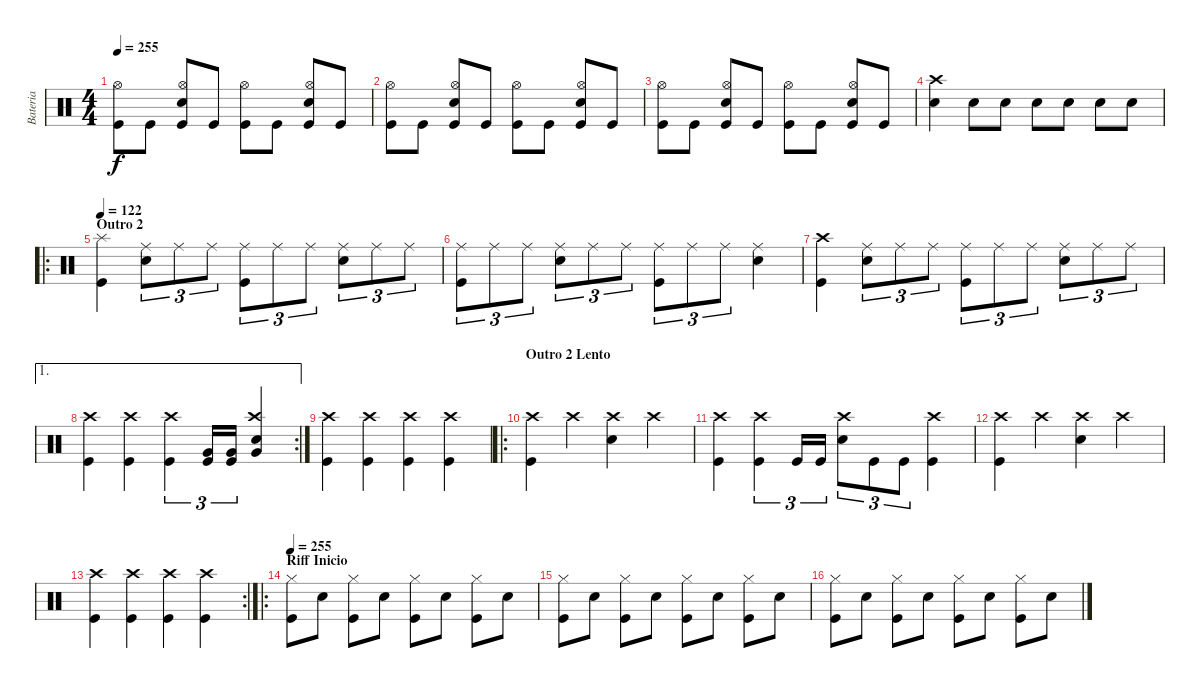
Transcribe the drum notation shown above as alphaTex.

\track ("Bateria" "Bateria") {instrument percussion}
\staff {score}
\articulation defaults
\ts (4 4)
\tempo 255
\clef neutral
\ks c
("Kick (hit)" "Hi-Hat (open)").8{dy f} "Kick (hit)".8 ("Kick (hit)" "Electric Snare (hit)" "Hi-Hat (open)").8 "Kick (hit)".8 ("Kick (hit)" "Hi-Hat (open)").8 "Kick (hit)".8 ("Kick (hit)" "Electric Snare (hit)" "Hi-Hat (open)").8 "Kick (hit)".8 |
("Kick (hit)" "Hi-Hat (open)").8 "Kick (hit)".8 ("Kick (hit)" "Electric Snare (hit)" "Hi-Hat (open)").8 "Kick (hit)".8 ("Kick (hit)" "Hi-Hat (open)").8 "Kick (hit)".8 ("Kick (hit)" "Electric Snare (hit)" "Hi-Hat (open)").8 "Kick (hit)".8 |
("Kick (hit)" "Hi-Hat (open)").8 "Kick (hit)".8 ("Kick (hit)" "Electric Snare (hit)" "Hi-Hat (open)").8 "Kick (hit)".8 ("Kick (hit)" "Hi-Hat (open)").8 "Kick (hit)".8 ("Kick (hit)" "Electric Snare (hit)" "Hi-Hat (open)").8 "Kick (hit)".8 |
("Electric Snare (hit)" "Crash high (hit)").4 "Electric Snare (hit)".8 "Electric Snare (hit)".8 "Electric Snare (hit)".8 "Electric Snare (hit)".8 "Electric Snare (hit)".8 "Electric Snare (hit)".8 |
\ro
\section ("" "Outro 2")
\tempo 122
("Kick (hit)" "Splash (hit)").4 ("Electric Snare (hit)" "Ride (middle)").8{tu (3 2)} "Ride (middle)".8{tu (3 2)} "Ride (middle)".8{tu (3 2)} ("Kick (hit)" "Ride (middle)").8{tu (3 2)} "Ride (middle)".8{tu (3 2)} "Ride (middle)".8{tu (3 2)} ("Electric Snare (hit)" "Ride (middle)").8{tu (3 2)} "Ride (middle)".8{tu (3 2)} "Ride (middle)".8{tu (3 2)} |
("Kick (hit)" "Ride (middle)").8{tu (3 2)} "Ride (middle)".8{tu (3 2)} "Ride (middle)".8{tu (3 2)} ("Electric Snare (hit)" "Ride (middle)").8{tu (3 2)} "Ride (middle)".8{tu (3 2)} "Ride (middle)".8{tu (3 2)} ("Kick (hit)" "Ride (middle)").8{tu (3 2)} "Ride (middle)".8{tu (3 2)} "Ride (middle)".8{tu (3 2)} ("Electric Snare (hit)" "Ride (middle)").4 |
("Kick (hit)" "Crash high (hit)").4 ("Electric Snare (hit)" "Ride (middle)").8{tu (3 2)} "Ride (middle)".8{tu (3 2)} "Ride (middle)".8{tu (3 2)} ("Kick (hit)" "Ride (middle)").8{tu (3 2)} "Ride (middle)".8{tu (3 2)} "Ride (middle)".8{tu (3 2)} ("Electric Snare (hit)" "Ride (middle)").8{tu (3 2)} "Ride (middle)".8{tu (3 2)} "Ride (middle)".8{tu (3 2)} |
\ae 1
\rc 2
("Kick (hit)" "Crash high (hit)").4 ("Kick (hit)" "Crash high (hit)").4 ("Kick (hit)" "Crash high (hit)").4{tu (3 2)} ("Kick (hit)" "Very Low Tom (hit)").16{tu (3 2)} ("Kick (hit)" "Very Low Tom (hit)").16{tu (3 2)} ("Electric Snare (hit)" "Crash high (hit)" "Very Low Tom (hit)").4 |
("Kick (hit)" "Crash high (hit)").4 ("Kick (hit)" "Crash high (hit)").4 ("Kick (hit)" "Crash high (hit)").4 ("Kick (hit)" "Crash high (hit)").4 |
\ro
\section ("" "Outro 2 Lento")
("Kick (hit)" "Crash high (hit)").4 "Crash high (hit)".4 ("Electric Snare (hit)" "Crash high (hit)").4 "Crash high (hit)".4 |
("Kick (hit)" "Crash high (hit)").4 ("Kick (hit)" "Crash high (hit)").4{tu (3 2)} "Kick (hit)".16{tu (3 2)} "Kick (hit)".16{tu (3 2)} ("Electric Snare (hit)" "Crash high (hit)").8{tu (3 2)} "Kick (hit)".8{tu (3 2)} "Kick (hit)".8{tu (3 2)} ("Kick (hit)" "Crash high (hit)").4 |
("Kick (hit)" "Crash high (hit)").4 "Crash high (hit)".4 ("Electric Snare (hit)" "Crash high (hit)").4 "Crash high (hit)".4 |
\rc 2
("Kick (hit)" "Crash high (hit)").4 ("Kick (hit)" "Crash high (hit)").4 ("Kick (hit)" "Crash high (hit)").4 ("Kick (hit)" "Crash high (hit)").4 |
\ro
\section ("" "Riff Inicio")
\tempo 255
("Kick (hit)" "Hi-Hat (closed)").8 "Electric Snare (hit)".8 ("Kick (hit)" "Hi-Hat (closed)").8 "Electric Snare (hit)".8 ("Kick (hit)" "Hi-Hat (closed)").8 "Electric Snare (hit)".8 ("Kick (hit)" "Hi-Hat (closed)").8 "Electric Snare (hit)".8 |
("Kick (hit)" "Hi-Hat (closed)").8 "Electric Snare (hit)".8 ("Kick (hit)" "Hi-Hat (closed)").8 "Electric Snare (hit)".8 ("Kick (hit)" "Hi-Hat (closed)").8 "Electric Snare (hit)".8 ("Kick (hit)" "Hi-Hat (closed)").8 "Electric Snare (hit)".8 |
("Kick (hit)" "Hi-Hat (closed)").8 "Electric Snare (hit)".8 ("Kick (hit)" "Hi-Hat (closed)").8 "Electric Snare (hit)".8 ("Kick (hit)" "Hi-Hat (closed)").8 "Electric Snare (hit)".8 ("Kick (hit)" "Hi-Hat (closed)").8 "Electric Snare (hit)".8
